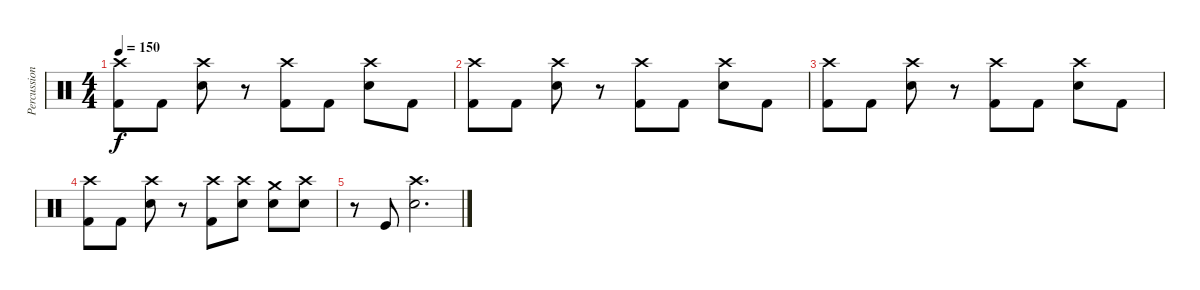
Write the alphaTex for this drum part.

\track ("Percussion" "Percussion") {instrument percussion}
\staff {score}
\articulation defaults
\ts (4 4)
\tempo 150
\clef neutral
\ks c
("Crash high (hit)" "Kick (hit) 2").8{dy f} "Kick (hit) 2".8 ("Crash high (hit)" "Electric Snare (hit)").8 r.8 ("Crash high (hit)" "Kick (hit) 2").8 "Kick (hit) 2".8 ("Crash high (hit)" "Electric Snare (hit)").8 "Kick (hit) 2".8 |
("Crash high (hit)" "Kick (hit) 2").8 "Kick (hit) 2".8 ("Crash high (hit)" "Electric Snare (hit)").8 r.8 ("Crash high (hit)" "Kick (hit) 2").8 "Kick (hit) 2".8 ("Crash high (hit)" "Electric Snare (hit)").8 "Kick (hit) 2".8 |
("Crash high (hit)" "Kick (hit) 2").8 "Kick (hit) 2".8 ("Crash high (hit)" "Electric Snare (hit)").8 r.8 ("Crash high (hit)" "Kick (hit) 2").8 "Kick (hit) 2".8 ("Crash high (hit)" "Electric Snare (hit)").8 "Kick (hit) 2".8 |
("Crash high (hit)" "Kick (hit) 2").8 "Kick (hit) 2".8 ("Crash high (hit)" "Electric Snare (hit)").8 r.8 ("Crash high (hit)" "Kick (hit) 2").8 ("Crash high (hit)" "Electric Snare (hit)").8 ("Crash medium (hit)" "Electric Snare (hit)").8 ("Crash high (hit)" "Electric Snare (hit)").8 |
r.8 "Kick (hit)".8 ("Crash high (hit)" "Electric Snare (hit)").2{d}
